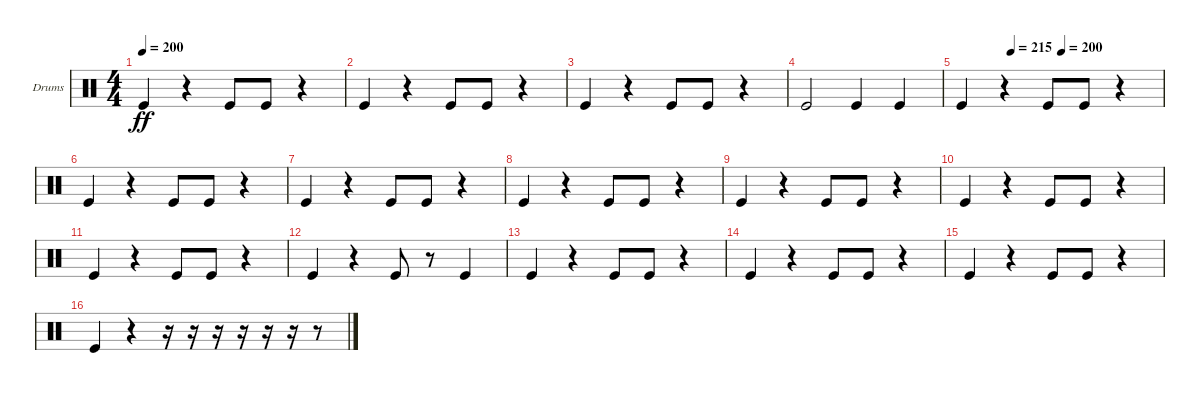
\bracketExtendMode groupsimilarinstruments
\firstSystemTrackNameOrientation horizontal
\otherSystemsTrackNameOrientation horizontal
\track ("Drumkit" "Drums") {instrument percussion}
\staff {score}
\articulation defaults
\ts (4 4)
\tempo 200
\clef neutral
\ks c "Kick (hit)".4{dy ff}
r.4 "Kick (hit)".8 "Kick (hit)".8 r.4 |
"Kick (hit)".4 r.4 "Kick (hit)".8 "Kick (hit)".8 r.4 |
"Kick (hit)".4 r.4 "Kick (hit)".8 "Kick (hit)".8 r.4 |
"Kick (hit)".2 "Kick (hit)".4 "Kick (hit)".4 |
\tempo (215 0.25)
\tempo (200 0.5)
"Kick (hit)".4 r.4 "Kick (hit)".8 "Kick (hit)".8 r.4 |
"Kick (hit)".4 r.4 "Kick (hit)".8 "Kick (hit)".8 r.4 |
"Kick (hit)".4 r.4 "Kick (hit)".8 "Kick (hit)".8 r.4 |
"Kick (hit)".4 r.4 "Kick (hit)".8 "Kick (hit)".8 r.4 |
"Kick (hit)".4 r.4 "Kick (hit)".8 "Kick (hit)".8 r.4 |
"Kick (hit)".4 r.4 "Kick (hit)".8 "Kick (hit)".8 r.4 |
"Kick (hit)".4 r.4 "Kick (hit)".8 "Kick (hit)".8 r.4 |
"Kick (hit)".4 r.4 "Kick (hit)".8 r.8 "Kick (hit)".4 |
"Kick (hit)".4 r.4 "Kick (hit)".8 "Kick (hit)".8 r.4 |
"Kick (hit)".4 r.4 "Kick (hit)".8 "Kick (hit)".8 r.4 |
"Kick (hit)".4 r.4 "Kick (hit)".8 "Kick (hit)".8 r.4 |
"Kick (hit)".4 r.4 r.16 r.16 r.16 r.16 r.16 r.16 r.8
